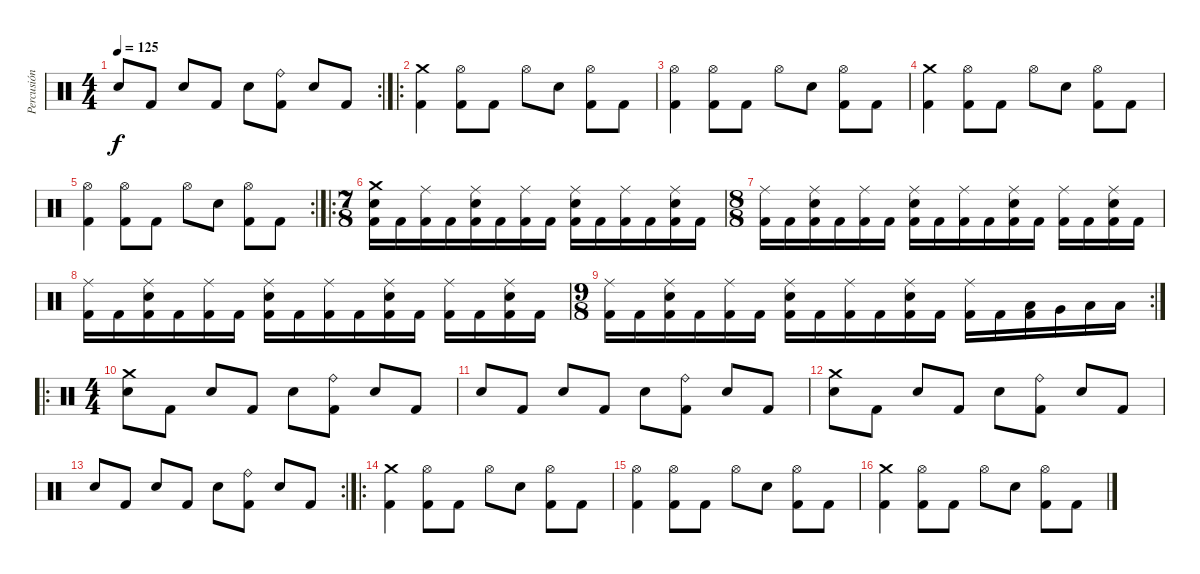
\track ("Percusión" "Percusión") {instrument percussion}
\staff {score}
\articulation defaults
\rc 2
\ts (4 4)
\tempo 125
\clef neutral
\ks c "Electric Snare (hit)".8{dy f} "Kick (hit) 2".8 "Electric Snare (hit)".8 "Kick (hit) 2".8 "Electric Snare (hit)".8
("Ride (bell)" "Kick (hit) 2").8 "Electric Snare (hit)".8 "Kick (hit) 2".8 |
\ro
("Crash medium (hit)" "Kick (hit) 2").4 ("Hi-Hat (open)" "Kick (hit) 2").8 "Kick (hit) 2".8 "Hi-Hat (open)".8 "Electric Snare (hit)".8 ("Hi-Hat (open)" "Kick (hit) 2").8 "Kick (hit) 2".8 |
("Hi-Hat (open)" "Kick (hit) 2").4 ("Hi-Hat (open)" "Kick (hit) 2").8 "Kick (hit) 2".8 "Hi-Hat (open)".8 "Electric Snare (hit)".8 ("Hi-Hat (open)" "Kick (hit) 2").8 "Kick (hit) 2".8 |
("Crash medium (hit)" "Kick (hit) 2").4 ("Hi-Hat (open)" "Kick (hit) 2").8 "Kick (hit) 2".8 "Hi-Hat (open)".8 "Electric Snare (hit)".8 ("Hi-Hat (open)" "Kick (hit) 2").8 "Kick (hit) 2".8 |
\rc 2
("Hi-Hat (open)" "Kick (hit) 2").4 ("Hi-Hat (open)" "Kick (hit) 2").8 "Kick (hit) 2".8 "Hi-Hat (open)".8 "Electric Snare (hit)".8 ("Hi-Hat (open)" "Kick (hit) 2").8 "Kick (hit) 2".8 |
\ro
\ts (7 8)
("Crash medium (hit)" "Electric Snare (hit)" "Kick (hit) 2").16 "Kick (hit) 2".16 ("Ride (middle)" "Kick (hit) 2").16 "Kick (hit) 2".16 ("Ride (middle)" "Electric Snare (hit)" "Kick (hit) 2").16 "Kick (hit) 2".16 ("Ride (middle)" "Kick (hit) 2").16 "Kick (hit) 2".16 ("Ride (middle)" "Electric Snare (hit)" "Kick (hit) 2").16 "Kick (hit) 2".16 ("Ride (middle)" "Kick (hit) 2").16 "Kick (hit) 2".16 ("Ride (middle)" "Electric Snare (hit)" "Kick (hit) 2").16 "Kick (hit) 2".16 |
\ts (8 8)
("Ride (middle)" "Kick (hit) 2").16 "Kick (hit) 2".16 ("Ride (middle)" "Electric Snare (hit)" "Kick (hit) 2").16 "Kick (hit) 2".16 ("Ride (middle)" "Kick (hit) 2").16 "Kick (hit) 2".16 ("Ride (middle)" "Electric Snare (hit)" "Kick (hit) 2").16 "Kick (hit) 2".16 ("Ride (middle)" "Kick (hit) 2").16 "Kick (hit) 2".16 ("Ride (middle)" "Electric Snare (hit)" "Kick (hit) 2").16 "Kick (hit) 2".16 ("Ride (middle)" "Kick (hit) 2").16 "Kick (hit) 2".16 ("Ride (middle)" "Electric Snare (hit)" "Kick (hit) 2").16 "Kick (hit) 2".16 |
("Ride (middle)" "Kick (hit) 2").16 "Kick (hit) 2".16 ("Ride (middle)" "Electric Snare (hit)" "Kick (hit) 2").16 "Kick (hit) 2".16 ("Ride (middle)" "Kick (hit) 2").16 "Kick (hit) 2".16 ("Ride (middle)" "Electric Snare (hit)" "Kick (hit) 2").16 "Kick (hit) 2".16 ("Ride (middle)" "Kick (hit) 2").16 "Kick (hit) 2".16 ("Ride (middle)" "Electric Snare (hit)" "Kick (hit) 2").16 "Kick (hit) 2".16 ("Ride (middle)" "Kick (hit) 2").16 "Kick (hit) 2".16 ("Ride (middle)" "Electric Snare (hit)" "Kick (hit) 2").16 "Kick (hit) 2".16 |
\rc 2
\ts (9 8)
("Ride (middle)" "Kick (hit) 2").16 "Kick (hit) 2".16 ("Ride (middle)" "Electric Snare (hit)" "Kick (hit) 2").16 "Kick (hit) 2".16 ("Ride (middle)" "Kick (hit) 2").16 "Kick (hit) 2".16 ("Ride (middle)" "Electric Snare (hit)" "Kick (hit) 2").16 "Kick (hit) 2".16 ("Ride (middle)" "Kick (hit) 2").16 "Kick (hit) 2".16 ("Ride (middle)" "Electric Snare (hit)" "Kick (hit) 2").16 "Kick (hit) 2".16 ("Ride (middle)" "Kick (hit) 2").16 "Kick (hit) 2".16 ("Low Tom (hit)" "Kick (hit) 2").16 "Very Low Tom (hit)".16 "Low Tom (hit)".16 "Low Tom (hit)".16 |
\ro
\ts (4 4)
("Crash medium (hit)" "Electric Snare (hit)").8 "Kick (hit) 2".8 "Electric Snare (hit)".8 "Kick (hit) 2".8 "Electric Snare (hit)".8 ("Ride (bell)" "Kick (hit) 2").8 "Electric Snare (hit)".8 "Kick (hit) 2".8 |
"Electric Snare (hit)".8 "Kick (hit) 2".8 "Electric Snare (hit)".8 "Kick (hit) 2".8 "Electric Snare (hit)".8 ("Ride (bell)" "Kick (hit) 2").8 "Electric Snare (hit)".8 "Kick (hit) 2".8 |
("Crash medium (hit)" "Electric Snare (hit)").8 "Kick (hit) 2".8 "Electric Snare (hit)".8 "Kick (hit) 2".8 "Electric Snare (hit)".8 ("Ride (bell)" "Kick (hit) 2").8 "Electric Snare (hit)".8 "Kick (hit) 2".8 |
\rc 2 "Electric Snare (hit)".8 "Kick (hit) 2".8 "Electric Snare (hit)".8 "Kick (hit) 2".8 "Electric Snare (hit)".8
("Ride (bell)" "Kick (hit) 2").8 "Electric Snare (hit)".8 "Kick (hit) 2".8 |
\ro
("Crash medium (hit)" "Kick (hit) 2").4 ("Hi-Hat (open)" "Kick (hit) 2").8 "Kick (hit) 2".8 "Hi-Hat (open)".8 "Electric Snare (hit)".8 ("Hi-Hat (open)" "Kick (hit) 2").8 "Kick (hit) 2".8 |
("Hi-Hat (open)" "Kick (hit) 2").4 ("Hi-Hat (open)" "Kick (hit) 2").8 "Kick (hit) 2".8 "Hi-Hat (open)".8 "Electric Snare (hit)".8 ("Hi-Hat (open)" "Kick (hit) 2").8 "Kick (hit) 2".8 |
("Crash medium (hit)" "Kick (hit) 2").4 ("Hi-Hat (open)" "Kick (hit) 2").8 "Kick (hit) 2".8 "Hi-Hat (open)".8 "Electric Snare (hit)".8 ("Hi-Hat (open)" "Kick (hit) 2").8 "Kick (hit) 2".8
